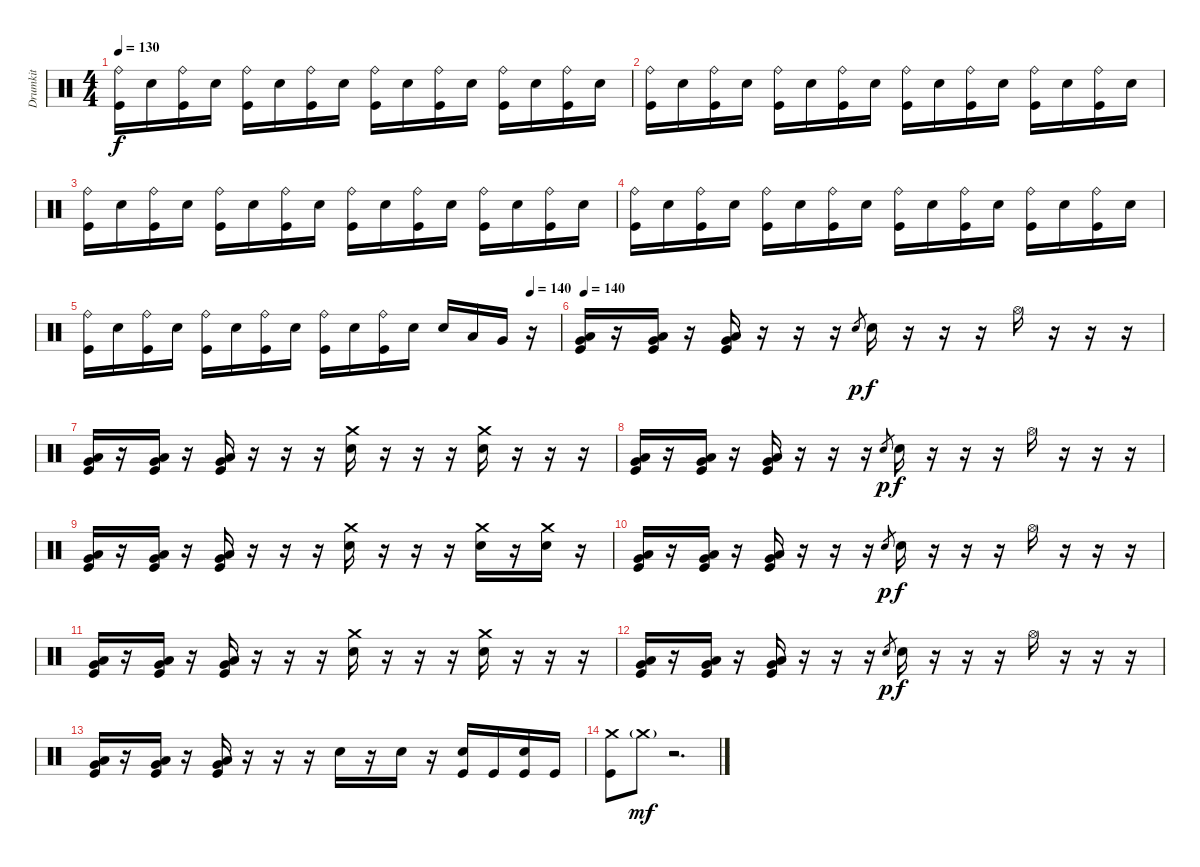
\track ("Drumkit" "Drumkit") {instrument percussion}
\staff {score}
\articulation defaults
\ts (4 4)
\tempo 130
\clef neutral
\ks c
("Ride (bell)" "Kick (hit)").16{dy f} "Snare (hit) 2".16 ("Ride (bell)" "Kick (hit)").16 "Snare (hit) 2".16 ("Ride (bell)" "Kick (hit)").16 "Snare (hit) 2".16 ("Ride (bell)" "Kick (hit)").16 "Snare (hit) 2".16 ("Ride (bell)" "Kick (hit)").16 "Snare (hit) 2".16 ("Ride (bell)" "Kick (hit)").16 "Snare (hit) 2".16 ("Ride (bell)" "Kick (hit)").16 "Snare (hit) 2".16 ("Ride (bell)" "Kick (hit)").16 "Snare (hit) 2".16 |
("Ride (bell)" "Kick (hit)").16 "Snare (hit) 2".16 ("Ride (bell)" "Kick (hit)").16 "Snare (hit) 2".16 ("Ride (bell)" "Kick (hit)").16 "Snare (hit) 2".16 ("Ride (bell)" "Kick (hit)").16 "Snare (hit) 2".16 ("Ride (bell)" "Kick (hit)").16 "Snare (hit) 2".16 ("Ride (bell)" "Kick (hit)").16 "Snare (hit) 2".16 ("Ride (bell)" "Kick (hit)").16 "Snare (hit) 2".16 ("Ride (bell)" "Kick (hit)").16 "Snare (hit) 2".16 |
("Ride (bell)" "Kick (hit)").16 "Snare (hit) 2".16 ("Ride (bell)" "Kick (hit)").16 "Snare (hit) 2".16 ("Ride (bell)" "Kick (hit)").16 "Snare (hit) 2".16 ("Ride (bell)" "Kick (hit)").16 "Snare (hit) 2".16 ("Ride (bell)" "Kick (hit)").16 "Snare (hit) 2".16 ("Ride (bell)" "Kick (hit)").16 "Snare (hit) 2".16 ("Ride (bell)" "Kick (hit)").16 "Snare (hit) 2".16 ("Ride (bell)" "Kick (hit)").16 "Snare (hit) 2".16 |
("Ride (bell)" "Kick (hit)").16 "Snare (hit) 2".16 ("Ride (bell)" "Kick (hit)").16 "Snare (hit) 2".16 ("Ride (bell)" "Kick (hit)").16 "Snare (hit) 2".16 ("Ride (bell)" "Kick (hit)").16 "Snare (hit) 2".16 ("Ride (bell)" "Kick (hit)").16 "Snare (hit) 2".16 ("Ride (bell)" "Kick (hit)").16 "Snare (hit) 2".16 ("Ride (bell)" "Kick (hit)").16 "Snare (hit) 2".16 ("Ride (bell)" "Kick (hit)").16 "Snare (hit) 2".16 |
\tempo (140 0.9375)
("Ride (bell)" "Kick (hit)").16 "Snare (hit) 2".16 ("Ride (bell)" "Kick (hit)").16 "Snare (hit) 2".16 ("Ride (bell)" "Kick (hit)").16 "Snare (hit) 2".16 ("Ride (bell)" "Kick (hit)").16 "Snare (hit) 2".16 ("Ride (bell)" "Kick (hit)").16 "Snare (hit) 2".16 ("Ride (bell)" "Kick (hit)").16 "Snare (hit) 2".16 "Snare (hit) 2".16 "Low Tom (hit)".16 "Very Low Tom (hit)".16 r.16 |
\tempo 140
("Very Low Tom (hit)" "Low Floor Tom (hit)" "Kick (hit)").16 r.16 ("Very Low Tom (hit)" "Low Floor Tom (hit)" "Kick (hit)").16 r.16 ("Very Low Tom (hit)" "Low Floor Tom (hit)" "Kick (hit)").16 r.16 r.16 r.16 "Snare (hit)".8{gr dy p} "Snare (hit) 2".16{dy f} r.16 r.16 r.16 "Hi-Hat (open)".16 r.16 r.16 r.16 |
("Very Low Tom (hit)" "Low Floor Tom (hit)" "Kick (hit)").16 r.16 ("Very Low Tom (hit)" "Low Floor Tom (hit)" "Kick (hit)").16 r.16 ("Very Low Tom (hit)" "Low Floor Tom (hit)" "Kick (hit)").16 r.16 r.16 r.16 ("Crash medium (hit)" "Snare (hit) 2").16 r.16 r.16 r.16 ("Crash medium (hit)" "Snare (hit) 2").16 r.16 r.16 r.16 |
("Very Low Tom (hit)" "Low Floor Tom (hit)" "Kick (hit)").16 r.16 ("Very Low Tom (hit)" "Low Floor Tom (hit)" "Kick (hit)").16 r.16 ("Very Low Tom (hit)" "Low Floor Tom (hit)" "Kick (hit)").16 r.16 r.16 r.16 "Snare (hit)".8{gr dy p} "Snare (hit) 2".16{dy f} r.16 r.16 r.16 "Hi-Hat (open)".16 r.16 r.16 r.16 |
("Very Low Tom (hit)" "Low Floor Tom (hit)" "Kick (hit)").16 r.16 ("Very Low Tom (hit)" "Low Floor Tom (hit)" "Kick (hit)").16 r.16 ("Very Low Tom (hit)" "Low Floor Tom (hit)" "Kick (hit)").16 r.16 r.16 r.16 ("Crash medium (hit)" "Snare (hit) 2").16 r.16 r.16 r.16 ("Crash medium (hit)" "Snare (hit) 2").16 r.16 ("Crash medium (hit)" "Snare (hit) 2").16 r.16 |
("Very Low Tom (hit)" "Low Floor Tom (hit)" "Kick (hit)").16 r.16 ("Very Low Tom (hit)" "Low Floor Tom (hit)" "Kick (hit)").16 r.16 ("Very Low Tom (hit)" "Low Floor Tom (hit)" "Kick (hit)").16 r.16 r.16 r.16 "Snare (hit)".8{gr dy p} "Snare (hit) 2".16{dy f} r.16 r.16 r.16 "Hi-Hat (open)".16 r.16 r.16 r.16 |
("Very Low Tom (hit)" "Low Floor Tom (hit)" "Kick (hit)").16 r.16 ("Very Low Tom (hit)" "Low Floor Tom (hit)" "Kick (hit)").16 r.16 ("Very Low Tom (hit)" "Low Floor Tom (hit)" "Kick (hit)").16 r.16 r.16 r.16 ("Crash medium (hit)" "Snare (hit) 2").16 r.16 r.16 r.16 ("Crash medium (hit)" "Snare (hit) 2").16 r.16 r.16 r.16 |
("Very Low Tom (hit)" "Low Floor Tom (hit)" "Kick (hit)").16 r.16 ("Very Low Tom (hit)" "Low Floor Tom (hit)" "Kick (hit)").16 r.16 ("Very Low Tom (hit)" "Low Floor Tom (hit)" "Kick (hit)").16 r.16 r.16 r.16 "Snare (hit)".8{gr dy p} "Snare (hit) 2".16{dy f} r.16 r.16 r.16 "Hi-Hat (open)".16 r.16 r.16 r.16 |
("Very Low Tom (hit)" "Low Floor Tom (hit)" "Kick (hit)").16 r.16 ("Very Low Tom (hit)" "Low Floor Tom (hit)" "Kick (hit)").16 r.16 ("Very Low Tom (hit)" "Low Floor Tom (hit)" "Kick (hit)").16 r.16 r.16 r.16 "Snare (hit) 2".16 r.16 "Snare (hit) 2".16 r.16 ("Snare (hit) 2" "Kick (hit)").16 "Kick (hit)".16 ("Snare (hit) 2" "Kick (hit)").16 "Kick (hit)".16 |
("Crash medium (hit)" "Kick (hit)").8 "Crash medium (hit)"{g}.8{dy mf} r.2{d}
